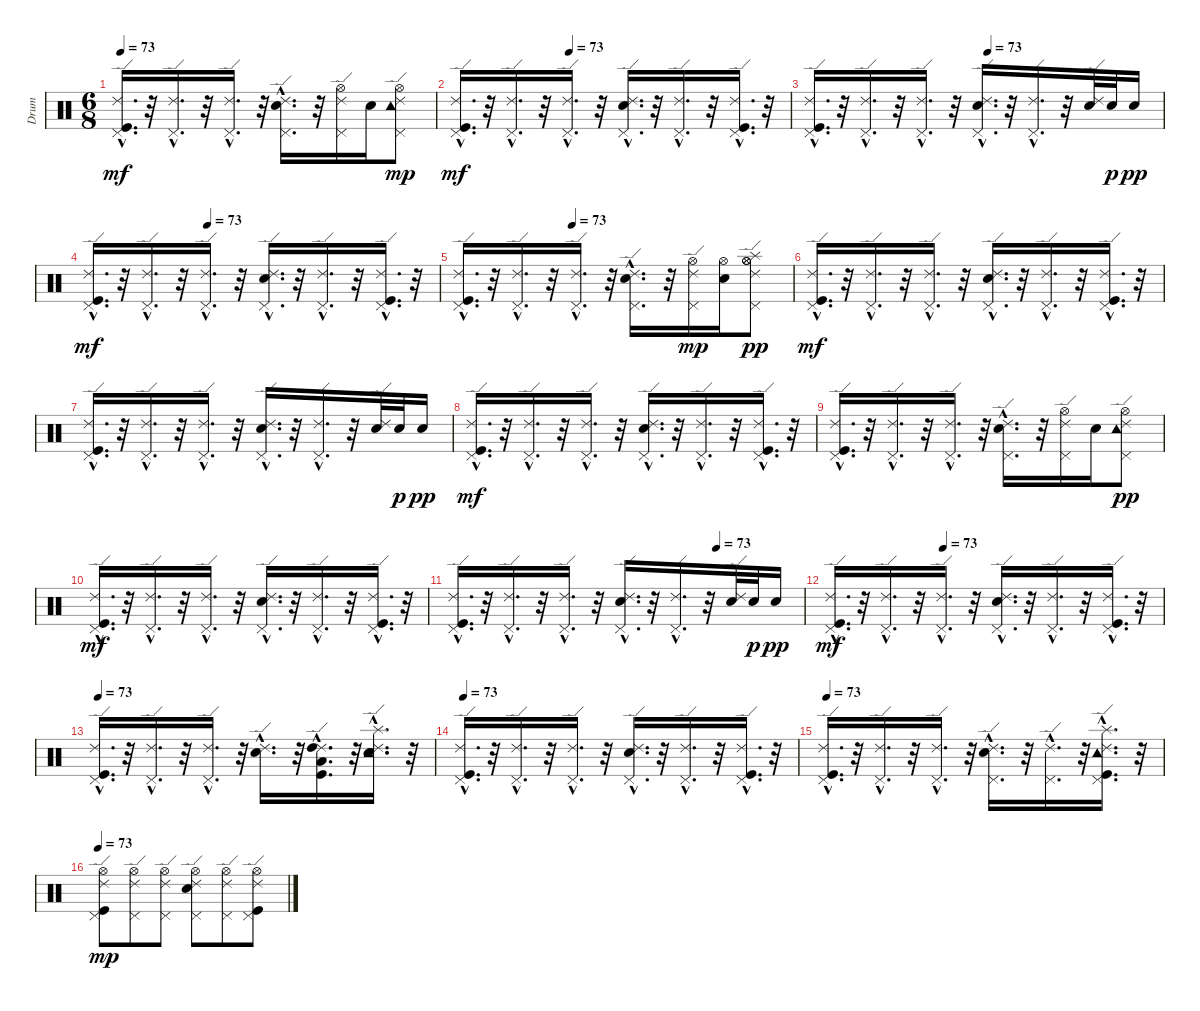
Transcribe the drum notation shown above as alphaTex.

\track ("Drum" "Drum") {instrument percussion}
\staff {score}
\articulation defaults
\ts (6 8)
\tempo 73
\clef neutral
\ks c
("Ride (edge) 2"{hac} "Kick (hit)"{hac} "Pedal Hi-Hat (hit)"{hac}).16{d dy mf} r.32 ("Ride (edge) 2"{hac} "Pedal Hi-Hat (hit)"{hac}).16{d} r.32 ("Pedal Hi-Hat (hit)"{hac} "Ride (edge) 2"{hac}).16{d} r.32 ("Snare (hit) 2"{hac} "Ride (edge) 2"{hac} "Pedal Hi-Hat (hit)"{hac}).16{d} r.32 ("Hi-Hat (open)" "Ride (edge) 2" "Pedal Hi-Hat (hit)").16 "Snare (hit) 2".16 ("Hi-Hat (open)" "Ride (edge) 2" "Pedal Hi-Hat (hit)" "Tambourine (hit)").8{dy mp} |
\tempo (73 0.3333333333333333)
("Kick (hit)"{hac} "Pedal Hi-Hat (hit)"{hac} "Ride (edge) 2"{hac}).16{d dy mf} r.32 ("Pedal Hi-Hat (hit)"{hac} "Ride (edge) 2"{hac}).16{d} r.32 ("Pedal Hi-Hat (hit)"{hac} "Ride (edge) 2"{hac}).16{d} r.32 ("Snare (hit) 2"{hac} "Pedal Hi-Hat (hit)"{hac} "Ride (edge) 2"{hac}).16{d} r.32 ("Pedal Hi-Hat (hit)"{hac} "Ride (edge) 2"{hac}).16{d} r.32 ("Kick (hit)"{hac} "Pedal Hi-Hat (hit)"{hac} "Ride (edge) 2"{hac}).16{d} r.32 |
\tempo (73 0.5)
("Kick (hit)"{hac} "Pedal Hi-Hat (hit)"{hac} "Ride (edge) 2"{hac}).16{d} r.32 ("Pedal Hi-Hat (hit)"{hac} "Ride (edge) 2"{hac}).16{d} r.32 ("Pedal Hi-Hat (hit)"{hac} "Ride (edge) 2"{hac}).16{d} r.32 ("Snare (hit) 2"{hac} "Pedal Hi-Hat (hit)"{hac} "Ride (edge) 2"{hac}).16{d} r.32 ("Pedal Hi-Hat (hit)"{hac} "Ride (edge) 2"{hac}).16{d} r.32 ("Snare (hit) 2" "Ride (edge) 2").32 "Snare (hit) 2".32{dy p} "Snare (hit) 2".16{dy pp} |
\tempo (73 0.3333333333333333)
("Pedal Hi-Hat (hit)"{hac} "Ride (edge) 2"{hac} "Kick (hit)"{hac}).16{d dy mf} r.32 ("Pedal Hi-Hat (hit)"{hac} "Ride (edge) 2"{hac}).16{d} r.32 ("Pedal Hi-Hat (hit)"{hac} "Ride (edge) 2"{hac}).16{d} r.32 ("Pedal Hi-Hat (hit)"{hac} "Ride (edge) 2"{hac} "Snare (hit) 2"{hac}).16{d} r.32 ("Pedal Hi-Hat (hit)"{hac} "Ride (edge) 2"{hac}).16{d} r.32 ("Pedal Hi-Hat (hit)"{hac} "Kick (hit)"{hac} "Ride (edge) 2"{hac}).16{d} r.32 |
\tempo (73 0.3333333333333333)
("Kick (hit)"{hac} "Pedal Hi-Hat (hit)"{hac} "Ride (edge) 2"{hac}).16{d} r.32 ("Ride (edge) 2"{hac} "Pedal Hi-Hat (hit)"{hac}).16{d} r.32 ("Pedal Hi-Hat (hit)"{hac} "Ride (edge) 2"{hac}).16{d} r.32 ("Snare (hit) 2"{hac} "Pedal Hi-Hat (hit)"{hac} "Ride (edge) 2"{hac}).16{d} r.32 ("Pedal Hi-Hat (hit)" "Ride (edge) 2" "Hi-Hat (open)").16{dy mp} ("Snare (hit) 2" "Hi-Hat (open)").16 ("Hi-Hat (open)" "Ride (edge) 2" "Pedal Hi-Hat (hit)" "Hi-Hat (open)" "Splash (hit)").8{dy pp} |
("Ride (edge) 2"{hac} "Kick (hit)"{hac} "Pedal Hi-Hat (hit)"{hac}).16{d dy mf} r.32 ("Ride (edge) 2"{hac} "Pedal Hi-Hat (hit)"{hac}).16{d} r.32 ("Pedal Hi-Hat (hit)"{hac} "Ride (edge) 2"{hac}).16{d} r.32 ("Snare (hit) 2"{hac} "Pedal Hi-Hat (hit)"{hac} "Ride (edge) 2"{hac}).16{d} r.32 ("Ride (edge) 2"{hac} "Pedal Hi-Hat (hit)"{hac}).16{d} r.32 ("Kick (hit)"{hac} "Ride (edge) 2"{hac} "Pedal Hi-Hat (hit)"{hac}).16{d} r.32 |
("Kick (hit)"{hac} "Pedal Hi-Hat (hit)"{hac} "Ride (edge) 2"{hac}).16{d} r.32 ("Pedal Hi-Hat (hit)"{hac} "Ride (edge) 2"{hac}).16{d} r.32 ("Pedal Hi-Hat (hit)"{hac} "Ride (edge) 2"{hac}).16{d} r.32 ("Snare (hit) 2"{hac} "Pedal Hi-Hat (hit)"{hac} "Ride (edge) 2"{hac}).16{d} r.32 ("Pedal Hi-Hat (hit)"{hac} "Ride (edge) 2"{hac}).16{d} r.32 ("Snare (hit) 2" "Ride (edge) 2").32 "Snare (hit) 2".32{dy p} "Snare (hit) 2".16{dy pp} |
("Ride (edge) 2"{hac} "Pedal Hi-Hat (hit)"{hac} "Kick (hit)"{hac}).16{d dy mf} r.32 ("Ride (edge) 2"{hac} "Pedal Hi-Hat (hit)"{hac}).16{d} r.32 ("Ride (edge) 2"{hac} "Pedal Hi-Hat (hit)"{hac}).16{d} r.32 ("Ride (edge) 2"{hac} "Pedal Hi-Hat (hit)"{hac} "Snare (hit) 2"{hac}).16{d} r.32 ("Ride (edge) 2"{hac} "Pedal Hi-Hat (hit)"{hac}).16{d} r.32 ("Ride (edge) 2"{hac} "Pedal Hi-Hat (hit)"{hac} "Kick (hit)"{hac}).16{d} r.32 |
("Ride (edge) 2"{hac} "Kick (hit)"{hac} "Pedal Hi-Hat (hit)"{hac}).16{d} r.32 ("Ride (edge) 2"{hac} "Pedal Hi-Hat (hit)"{hac}).16{d} r.32 ("Pedal Hi-Hat (hit)"{hac} "Ride (edge) 2"{hac}).16{d} r.32 ("Ride (edge) 2"{hac} "Snare (hit) 2"{hac} "Pedal Hi-Hat (hit)"{hac}).16{d} r.32 ("Hi-Hat (open)" "Pedal Hi-Hat (hit)" "Ride (edge) 2").16 "Snare (hit) 2".16 ("Tambourine (hit)" "Pedal Hi-Hat (hit)" "Ride (edge) 2" "Hi-Hat (open)").8{dy pp} |
("Ride (edge) 2"{hac} "Pedal Hi-Hat (hit)"{hac} "Kick (hit)"{hac}).16{d dy mf} r.32 ("Ride (edge) 2"{hac} "Pedal Hi-Hat (hit)"{hac}).16{d} r.32 ("Ride (edge) 2"{hac} "Pedal Hi-Hat (hit)"{hac}).16{d} r.32 ("Ride (edge) 2"{hac} "Pedal Hi-Hat (hit)"{hac} "Snare (hit) 2"{hac}).16{d} r.32 ("Ride (edge) 2"{hac} "Pedal Hi-Hat (hit)"{hac}).16{d} r.32 ("Ride (edge) 2"{hac} "Pedal Hi-Hat (hit)"{hac} "Kick (hit)"{hac}).16{d} r.32 |
\tempo (73 0.75)
("Ride (edge) 2"{hac} "Pedal Hi-Hat (hit)"{hac} "Kick (hit)"{hac}).16{d} r.32 ("Ride (edge) 2"{hac} "Pedal Hi-Hat (hit)"{hac}).16{d} r.32 ("Ride (edge) 2"{hac} "Pedal Hi-Hat (hit)"{hac}).16{d} r.32 ("Ride (edge) 2"{hac} "Pedal Hi-Hat (hit)"{hac} "Snare (hit) 2"{hac}).16{d} r.32 ("Ride (edge) 2"{hac} "Pedal Hi-Hat (hit)"{hac}).16{d} r.32 ("Ride (edge) 2" "Snare (hit) 2").32 "Snare (hit) 2".32{dy p} "Snare (hit) 2".16{dy pp} |
\tempo (73 0.3333333333333333)
("Kick (hit)"{hac} "Ride (edge) 2"{hac} "Pedal Hi-Hat (hit)"{hac}).16{d dy mf} r.32 ("Ride (edge) 2"{hac} "Pedal Hi-Hat (hit)"{hac}).16{d} r.32 ("Ride (edge) 2"{hac} "Pedal Hi-Hat (hit)"{hac}).16{d} r.32 ("Snare (hit) 2"{hac} "Ride (edge) 2"{hac} "Pedal Hi-Hat (hit)"{hac}).16{d} r.32 ("Ride (edge) 2"{hac} "Pedal Hi-Hat (hit)"{hac}).16{d} r.32 ("Ride (edge) 2"{hac} "Kick (hit)"{hac} "Pedal Hi-Hat (hit)"{hac}).16{d} r.32 |
\tempo 73
("Kick (hit)"{hac} "Pedal Hi-Hat (hit)"{hac} "Ride (edge) 2"{hac}).16{d} r.32 ("Pedal Hi-Hat (hit)"{hac} "Ride (edge) 2"{hac}).16{d} r.32 ("Ride (edge) 2"{hac} "Pedal Hi-Hat (hit)"{hac}).16{d} r.32 ("Ride (edge) 2"{hac} "Snare (hit) 2"{hac}).16{d} r.32 ("Ride (edge) 2"{hac} "High Tom (hit)"{hac} "Kick (hit)"{hac} "Low Tom (hit)"{hac}).16{d} r.32 ("Ride (edge) 2"{hac} "Electric Snare (hit)"{hac} "Snare (hit) 2"{hac} "Tambourine (hit)"{hac} "Splash (hit)"{hac}).16{d} r.32 |
\tempo 73
("Kick (hit)"{hac} "Pedal Hi-Hat (hit)"{hac} "Ride (edge) 2"{hac}).16{d} r.32 ("Pedal Hi-Hat (hit)"{hac} "Ride (edge) 2"{hac}).16{d} r.32 ("Pedal Hi-Hat (hit)"{hac} "Ride (edge) 2"{hac}).16{d} r.32 ("Snare (hit) 2"{hac} "Pedal Hi-Hat (hit)"{hac} "Ride (edge) 2"{hac}).16{d} r.32 ("Pedal Hi-Hat (hit)"{hac} "Ride (edge) 2"{hac}).16{d} r.32 ("Kick (hit)"{hac} "Pedal Hi-Hat (hit)"{hac} "Ride (edge) 2"{hac}).16{d} r.32 |
\tempo 73
("Kick (hit)"{hac} "Pedal Hi-Hat (hit)"{hac} "Ride (edge) 2"{hac}).16{d} r.32 ("Pedal Hi-Hat (hit)"{hac} "Ride (edge) 2"{hac}).16{d} r.32 ("Pedal Hi-Hat (hit)"{hac} "Ride (edge) 2"{hac}).16{d} r.32 ("Snare (hit) 2"{hac} "Pedal Hi-Hat (hit)"{hac} "Ride (edge) 2"{hac}).16{d} r.32 ("Pedal Hi-Hat (hit)"{hac} "Ride (edge) 2"{hac}).16{d} r.32 ("Splash (hit)"{hac} "Ride (edge) 2"{hac} "Tambourine (hit)"{hac} "Pedal Hi-Hat (hit)"{hac} "Kick (hit)"{hac}).16{d} r.32 |
\tempo 73
("Ride (edge) 2" "Pedal Hi-Hat (hit)" "Kick (hit)" "Hi-Hat (open)").8{dy mp} ("Pedal Hi-Hat (hit)" "Ride (edge) 2" "Hi-Hat (open)").8 ("Pedal Hi-Hat (hit)" "Ride (edge) 2" "Hi-Hat (open)").8 ("Ride (edge) 2" "Snare (hit) 2" "Pedal Hi-Hat (hit)" "Hi-Hat (open)").8 ("Pedal Hi-Hat (hit)" "Ride (edge) 2" "Hi-Hat (open)").8 ("Pedal Hi-Hat (hit)" "Kick (hit)" "Ride (edge) 2" "Hi-Hat (open)").8
